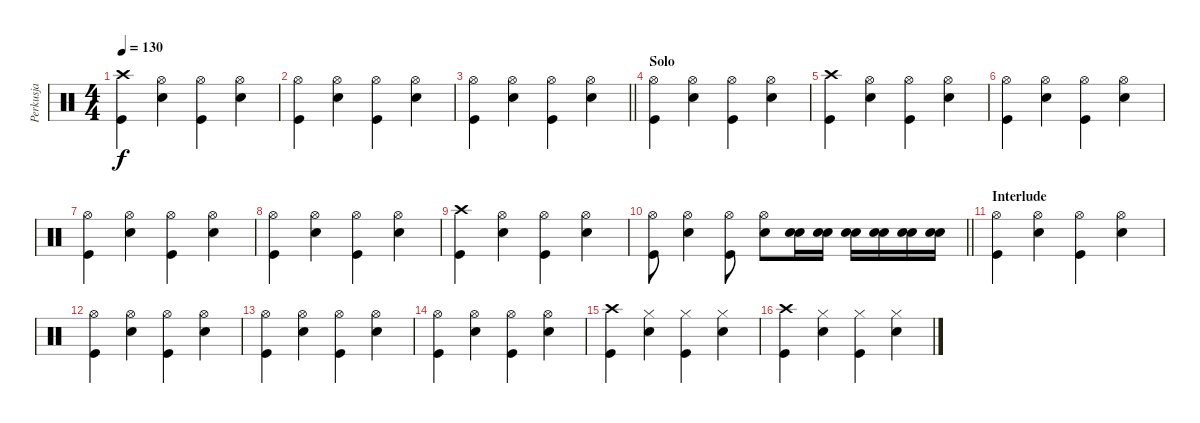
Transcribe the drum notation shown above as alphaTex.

\track ("Perkusja" "Perkusja") {instrument percussion}
\staff {score}
\articulation defaults
\ts (4 4)
\tempo 130
\clef neutral
\ks c
("Crash high (hit)" "Kick (hit)").4{dy f} ("Hi-Hat (open)" "Snare (hit) 2").4 ("Hi-Hat (open)" "Kick (hit)").4 ("Hi-Hat (open)" "Snare (hit) 2").4 |
("Hi-Hat (open)" "Kick (hit)").4 ("Hi-Hat (open)" "Snare (hit) 2").4 ("Hi-Hat (open)" "Kick (hit)").4 ("Hi-Hat (open)" "Snare (hit) 2").4 |
\barLineRight lightlight
("Hi-Hat (open)" "Kick (hit)").4 ("Hi-Hat (open)" "Snare (hit) 2").4 ("Hi-Hat (open)" "Kick (hit)").4 ("Hi-Hat (open)" "Snare (hit) 2").4 |
\section ("" "Solo")
("Hi-Hat (open)" "Kick (hit)").4 ("Hi-Hat (open)" "Snare (hit) 2").4 ("Hi-Hat (open)" "Kick (hit)").4 ("Hi-Hat (open)" "Snare (hit) 2").4 |
("Crash high (hit)" "Kick (hit)").4 ("Hi-Hat (open)" "Snare (hit) 2").4 ("Hi-Hat (open)" "Kick (hit)").4 ("Hi-Hat (open)" "Snare (hit) 2").4 |
("Hi-Hat (open)" "Kick (hit)").4 ("Hi-Hat (open)" "Snare (hit) 2").4 ("Hi-Hat (open)" "Kick (hit)").4 ("Hi-Hat (open)" "Snare (hit) 2").4 |
("Hi-Hat (open)" "Kick (hit)").4 ("Hi-Hat (open)" "Snare (hit) 2").4 ("Hi-Hat (open)" "Kick (hit)").4 ("Hi-Hat (open)" "Snare (hit) 2").4 |
("Hi-Hat (open)" "Kick (hit)").4 ("Hi-Hat (open)" "Snare (hit) 2").4 ("Hi-Hat (open)" "Kick (hit)").4 ("Hi-Hat (open)" "Snare (hit) 2").4 |
("Crash high (hit)" "Kick (hit)").4 ("Hi-Hat (open)" "Snare (hit) 2").4 ("Hi-Hat (open)" "Kick (hit)").4 ("Hi-Hat (open)" "Snare (hit) 2").4 |
\barLineRight lightlight
("Hi-Hat (open)" "Kick (hit)").8 ("Hi-Hat (open)" "Snare (hit) 2").4 ("Hi-Hat (open)" "Kick (hit)").8 ("Hi-Hat (open)" "Snare (hit) 2").8 ("Electric Snare (hit)" "Snare (hit) 2").16 ("Electric Snare (hit)" "Snare (hit) 2").16 ("Electric Snare (hit)" "Snare (hit) 2").16 ("Electric Snare (hit)" "Snare (hit) 2").16 ("Electric Snare (hit)" "Snare (hit) 2").16 ("Electric Snare (hit)" "Snare (hit) 2").16 |
\section ("" "Interlude")
("Hi-Hat (open)" "Kick (hit)").4 ("Hi-Hat (open)" "Snare (hit) 2").4 ("Hi-Hat (open)" "Kick (hit)").4 ("Hi-Hat (open)" "Snare (hit) 2").4 |
("Hi-Hat (open)" "Kick (hit)").4 ("Hi-Hat (open)" "Snare (hit) 2").4 ("Hi-Hat (open)" "Kick (hit)").4 ("Hi-Hat (open)" "Snare (hit) 2").4 |
("Hi-Hat (open)" "Kick (hit)").4 ("Hi-Hat (open)" "Snare (hit) 2").4 ("Hi-Hat (open)" "Kick (hit)").4 ("Hi-Hat (open)" "Snare (hit) 2").4 |
("Hi-Hat (open)" "Kick (hit)").4 ("Hi-Hat (open)" "Snare (hit) 2").4 ("Hi-Hat (open)" "Kick (hit)").4 ("Hi-Hat (open)" "Snare (hit) 2").4 |
("Crash high (hit)" "Kick (hit)").4 ("Hi-Hat (closed)" "Snare (hit) 2").4 ("Hi-Hat (closed)" "Kick (hit)").4 ("Hi-Hat (closed)" "Snare (hit) 2").4 |
("Crash high (hit)" "Kick (hit)").4 ("Hi-Hat (closed)" "Snare (hit) 2").4 ("Hi-Hat (closed)" "Kick (hit)").4 ("Hi-Hat (closed)" "Snare (hit) 2").4
